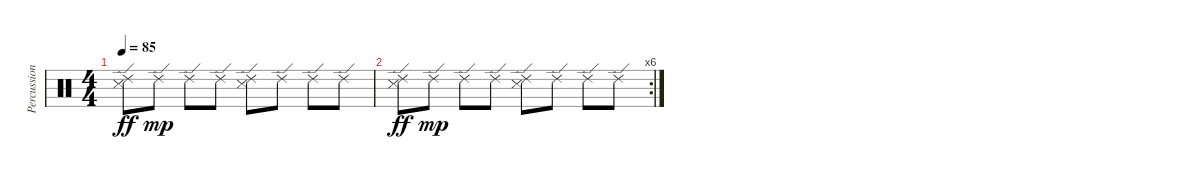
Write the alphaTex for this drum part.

\track ("Percussions (Moe Tucker)" "Percussion") {instrument percussion}
\staff {score}
\articulation defaults
\ts (4 4)
\tempo 85
\clef neutral
\ks c
("Ride (edge) 2" "Snare (side stick) 3").8{dy ff} "Ride (edge) 2".8{dy mp} "Ride (edge) 2".8 "Ride (edge) 2".8 ("Ride (edge) 2" "Snare (side stick) 3").8 "Ride (edge) 2".8 "Ride (edge) 2".8 "Ride (edge) 2".8 |
\rc 6
("Ride (edge) 2" "Snare (side stick) 3").8{dy ff} "Ride (edge) 2".8{dy mp} "Ride (edge) 2".8 "Ride (edge) 2".8 ("Ride (edge) 2" "Snare (side stick) 3").8 "Ride (edge) 2".8 "Ride (edge) 2".8 "Ride (edge) 2".8
